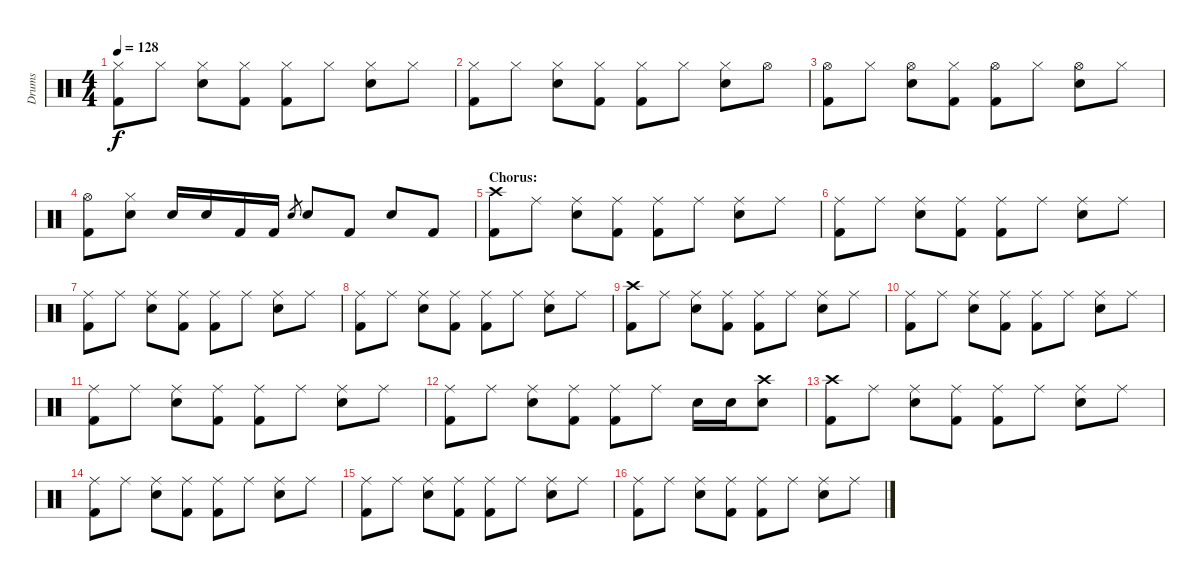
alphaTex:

\track ("Drums" "Drums") {instrument percussion}
\staff {score}
\articulation defaults
\ts (4 4)
\tempo 128
\clef neutral
\ks c
("Hi-Hat (closed)" "Kick (hit) 2").8{dy f} "Hi-Hat (closed)".8 ("Hi-Hat (closed)" "Electric Snare (hit)").8 ("Hi-Hat (closed)" "Kick (hit) 2").8 ("Hi-Hat (closed)" "Kick (hit) 2").8 "Hi-Hat (closed)".8 ("Hi-Hat (closed)" "Electric Snare (hit)").8 "Hi-Hat (closed)".8 |
("Hi-Hat (closed)" "Kick (hit) 2").8 "Hi-Hat (closed)".8 ("Hi-Hat (closed)" "Electric Snare (hit)").8 ("Hi-Hat (closed)" "Kick (hit) 2").8 ("Hi-Hat (closed)" "Kick (hit) 2").8 "Hi-Hat (closed)".8 ("Hi-Hat (closed)" "Electric Snare (hit)").8 "Hi-Hat (open)".8 |
("Hi-Hat (open)" "Kick (hit) 2").8 "Hi-Hat (closed)".8 ("Hi-Hat (open)" "Electric Snare (hit)").8 ("Hi-Hat (closed)" "Kick (hit) 2").8 ("Hi-Hat (open)" "Kick (hit) 2").8 "Hi-Hat (closed)".8 ("Hi-Hat (open)" "Electric Snare (hit)").8 "Hi-Hat (closed)".8 |
("Hi-Hat (open)" "Kick (hit) 2").8 ("Hi-Hat (closed)" "Electric Snare (hit)").8 "Electric Snare (hit)".16 "Electric Snare (hit)".16 "Kick (hit) 2".16 "Kick (hit) 2".16 "Electric Snare (hit)".8{gr} "Electric Snare (hit)".8 "Kick (hit) 2".8 "Electric Snare (hit)".8 "Kick (hit) 2".8 |
\section ("" "Chorus:")
("Crash high (hit)" "Kick (hit) 2").8 "Ride (middle)".8 ("Ride (middle)" "Electric Snare (hit)").8 ("Ride (middle)" "Kick (hit) 2").8 ("Ride (middle)" "Kick (hit) 2").8 "Ride (middle)".8 ("Ride (middle)" "Electric Snare (hit)").8 "Ride (middle)".8 |
("Ride (middle)" "Kick (hit) 2").8 "Ride (middle)".8 ("Ride (middle)" "Electric Snare (hit)").8 ("Ride (middle)" "Kick (hit) 2").8 ("Ride (middle)" "Kick (hit) 2").8 "Ride (middle)".8 ("Ride (middle)" "Electric Snare (hit)").8 "Ride (middle)".8 |
("Ride (middle)" "Kick (hit) 2").8 "Ride (middle)".8 ("Ride (middle)" "Electric Snare (hit)").8 ("Ride (middle)" "Kick (hit) 2").8 ("Ride (middle)" "Kick (hit) 2").8 "Ride (middle)".8 ("Ride (middle)" "Electric Snare (hit)").8 "Ride (middle)".8 |
("Ride (middle)" "Kick (hit) 2").8 "Ride (middle)".8 ("Ride (middle)" "Electric Snare (hit)").8 ("Ride (middle)" "Kick (hit) 2").8 ("Ride (middle)" "Kick (hit) 2").8 "Ride (middle)".8 ("Ride (middle)" "Electric Snare (hit)").8 "Ride (middle)".8 |
("Crash high (hit)" "Kick (hit) 2").8 "Ride (middle)".8 ("Ride (middle)" "Electric Snare (hit)").8 ("Ride (middle)" "Kick (hit) 2").8 ("Ride (middle)" "Kick (hit) 2").8 "Ride (middle)".8 ("Ride (middle)" "Electric Snare (hit)").8 "Ride (middle)".8 |
("Ride (middle)" "Kick (hit) 2").8 "Ride (middle)".8 ("Ride (middle)" "Electric Snare (hit)").8 ("Ride (middle)" "Kick (hit) 2").8 ("Ride (middle)" "Kick (hit) 2").8 "Ride (middle)".8 ("Ride (middle)" "Electric Snare (hit)").8 "Ride (middle)".8 |
("Ride (middle)" "Kick (hit) 2").8 "Ride (middle)".8 ("Ride (middle)" "Electric Snare (hit)").8 ("Ride (middle)" "Kick (hit) 2").8 ("Ride (middle)" "Kick (hit) 2").8 "Ride (middle)".8 ("Ride (middle)" "Electric Snare (hit)").8 "Ride (middle)".8 |
("Ride (middle)" "Kick (hit) 2").8 "Ride (middle)".8 ("Ride (middle)" "Electric Snare (hit)").8 ("Ride (middle)" "Kick (hit) 2").8 ("Ride (middle)" "Kick (hit) 2").8 "Ride (middle)".8 "Electric Snare (hit)".16 "Electric Snare (hit)".16 ("Crash high (hit)" "Electric Snare (hit)").8 |
("Crash high (hit)" "Kick (hit) 2").8 "Ride (middle)".8 ("Ride (middle)" "Electric Snare (hit)").8 ("Ride (middle)" "Kick (hit) 2").8 ("Ride (middle)" "Kick (hit) 2").8 "Ride (middle)".8 ("Ride (middle)" "Electric Snare (hit)").8 "Ride (middle)".8 |
("Ride (middle)" "Kick (hit) 2").8 "Ride (middle)".8 ("Ride (middle)" "Electric Snare (hit)").8 ("Ride (middle)" "Kick (hit) 2").8 ("Ride (middle)" "Kick (hit) 2").8 "Ride (middle)".8 ("Ride (middle)" "Electric Snare (hit)").8 "Ride (middle)".8 |
("Ride (middle)" "Kick (hit) 2").8 "Ride (middle)".8 ("Ride (middle)" "Electric Snare (hit)").8 ("Ride (middle)" "Kick (hit) 2").8 ("Ride (middle)" "Kick (hit) 2").8 "Ride (middle)".8 ("Ride (middle)" "Electric Snare (hit)").8 "Ride (middle)".8 |
("Ride (middle)" "Kick (hit) 2").8 "Ride (middle)".8 ("Ride (middle)" "Electric Snare (hit)").8 ("Ride (middle)" "Kick (hit) 2").8 ("Ride (middle)" "Kick (hit) 2").8 "Ride (middle)".8 ("Ride (middle)" "Electric Snare (hit)").8 "Ride (middle)".8
